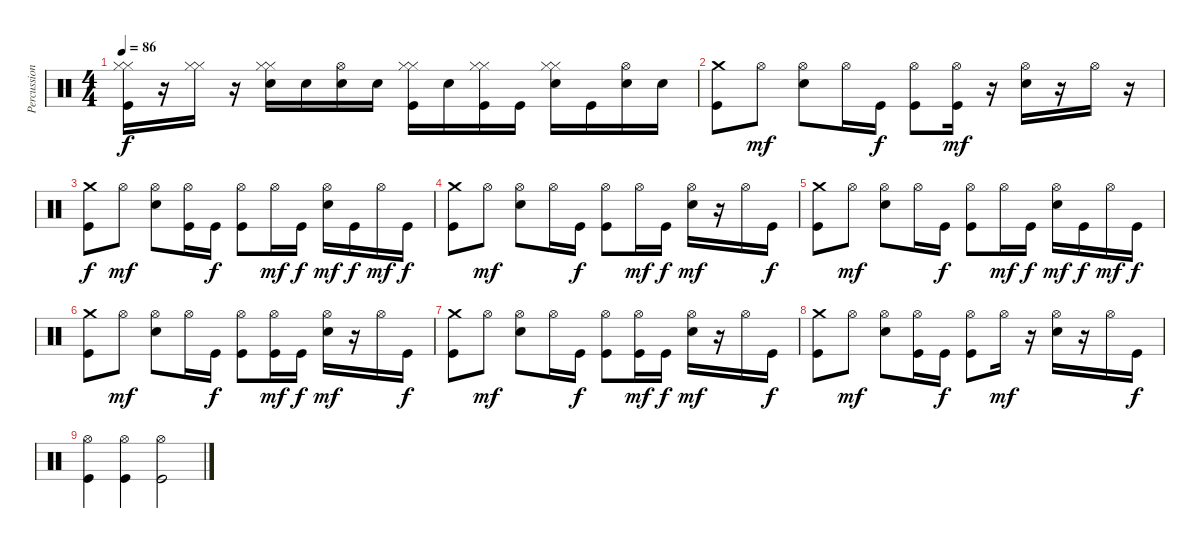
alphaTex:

\track ("Percussion" "Percussion") {instrument percussion}
\staff {score}
\articulation defaults
\ts (4 4)
\tempo 86
\clef neutral
\ks c
("Hi-Hat (closed)" "Hi-Hat (closed)" "Kick (hit)").16{dy f} r.16 ("Hi-Hat (closed)" "Hi-Hat (closed)").16 r.16 ("Hi-Hat (closed)" "Hi-Hat (closed)" "Electric Snare (hit)").16 "Electric Snare (hit)".16 ("Hi-Hat (open)" "Electric Snare (hit)").16 "Electric Snare (hit)".16 ("Hi-Hat (closed)" "Hi-Hat (closed)" "Kick (hit)").16 "Electric Snare (hit)".16 ("Hi-Hat (closed)" "Hi-Hat (closed)" "Kick (hit)").16 "Kick (hit)".16 ("Hi-Hat (closed)" "Hi-Hat (closed)" "Electric Snare (hit)").16 "Kick (hit)".16 ("Hi-Hat (open)" "Electric Snare (hit)").16 "Electric Snare (hit)".16 |
("Crash medium (hit)" "Kick (hit)").8 "Hi-Hat (open)".8{dy mf} ("Hi-Hat (open)" "Electric Snare (hit)").8 "Hi-Hat (open)".16 "Kick (hit)".16{dy f} ("Hi-Hat (open)" "Kick (hit)").8 ("Hi-Hat (open)" "Kick (hit)").16{dy mf} r.16 ("Hi-Hat (open)" "Electric Snare (hit)").16 r.16 "Hi-Hat (open)".16 r.16 |
("Crash medium (hit)" "Kick (hit)").8{dy f} "Hi-Hat (open)".8{dy mf} ("Hi-Hat (open)" "Electric Snare (hit)").8 ("Hi-Hat (open)" "Kick (hit)").16 "Kick (hit)".16{dy f} ("Hi-Hat (open)" "Kick (hit)").8 "Hi-Hat (open)".16{dy mf} "Kick (hit)".16{dy f} ("Hi-Hat (open)" "Electric Snare (hit)").16{dy mf} "Kick (hit)".16{dy f} "Hi-Hat (open)".16{dy mf} "Kick (hit)".16{dy f} |
("Crash medium (hit)" "Kick (hit)").8 "Hi-Hat (open)".8{dy mf} ("Hi-Hat (open)" "Electric Snare (hit)").8 "Hi-Hat (open)".16 "Kick (hit)".16{dy f} ("Hi-Hat (open)" "Kick (hit)").8 "Hi-Hat (open)".16{dy mf} "Kick (hit)".16{dy f} ("Hi-Hat (open)" "Electric Snare (hit)").16{dy mf} r.16 "Hi-Hat (open)".16 "Kick (hit)".16{dy f} |
("Crash medium (hit)" "Kick (hit)").8 "Hi-Hat (open)".8{dy mf} ("Hi-Hat (open)" "Electric Snare (hit)").8 "Hi-Hat (open)".16 "Kick (hit)".16{dy f} ("Hi-Hat (open)" "Kick (hit)").8 "Hi-Hat (open)".16{dy mf} "Kick (hit)".16{dy f} ("Hi-Hat (open)" "Electric Snare (hit)").16{dy mf} "Kick (hit)".16{dy f} "Hi-Hat (open)".16{dy mf} "Kick (hit)".16{dy f} |
("Crash medium (hit)" "Kick (hit)").8 "Hi-Hat (open)".8{dy mf} ("Hi-Hat (open)" "Electric Snare (hit)").8 "Hi-Hat (open)".16 "Kick (hit)".16{dy f} ("Hi-Hat (open)" "Kick (hit)").8 ("Hi-Hat (open)" "Kick (hit)").16{dy mf} "Kick (hit)".16{dy f} ("Hi-Hat (open)" "Electric Snare (hit)").16{dy mf} r.16 "Hi-Hat (open)".16 "Kick (hit)".16{dy f} |
("Crash medium (hit)" "Kick (hit)").8 "Hi-Hat (open)".8{dy mf} ("Hi-Hat (open)" "Electric Snare (hit)").8 "Hi-Hat (open)".16 "Kick (hit)".16{dy f} ("Hi-Hat (open)" "Kick (hit)").8 ("Hi-Hat (open)" "Kick (hit)").16{dy mf} "Kick (hit)".16{dy f} ("Hi-Hat (open)" "Electric Snare (hit)").16{dy mf} r.16 "Hi-Hat (open)".16 "Kick (hit)".16{dy f} |
("Crash medium (hit)" "Kick (hit)").8 "Hi-Hat (open)".8{dy mf} ("Hi-Hat (open)" "Electric Snare (hit)").8 ("Hi-Hat (open)" "Kick (hit)").16 "Kick (hit)".16{dy f} ("Hi-Hat (open)" "Kick (hit)").8 "Hi-Hat (open)".16{dy mf} r.16 ("Hi-Hat (open)" "Electric Snare (hit)").16 r.16 "Hi-Hat (open)".16 "Kick (hit)".16{dy f} |
("Hi-Hat (open)" "Kick (hit)").4 ("Hi-Hat (open)" "Kick (hit)").4 ("Hi-Hat (open)" "Kick (hit)").2
